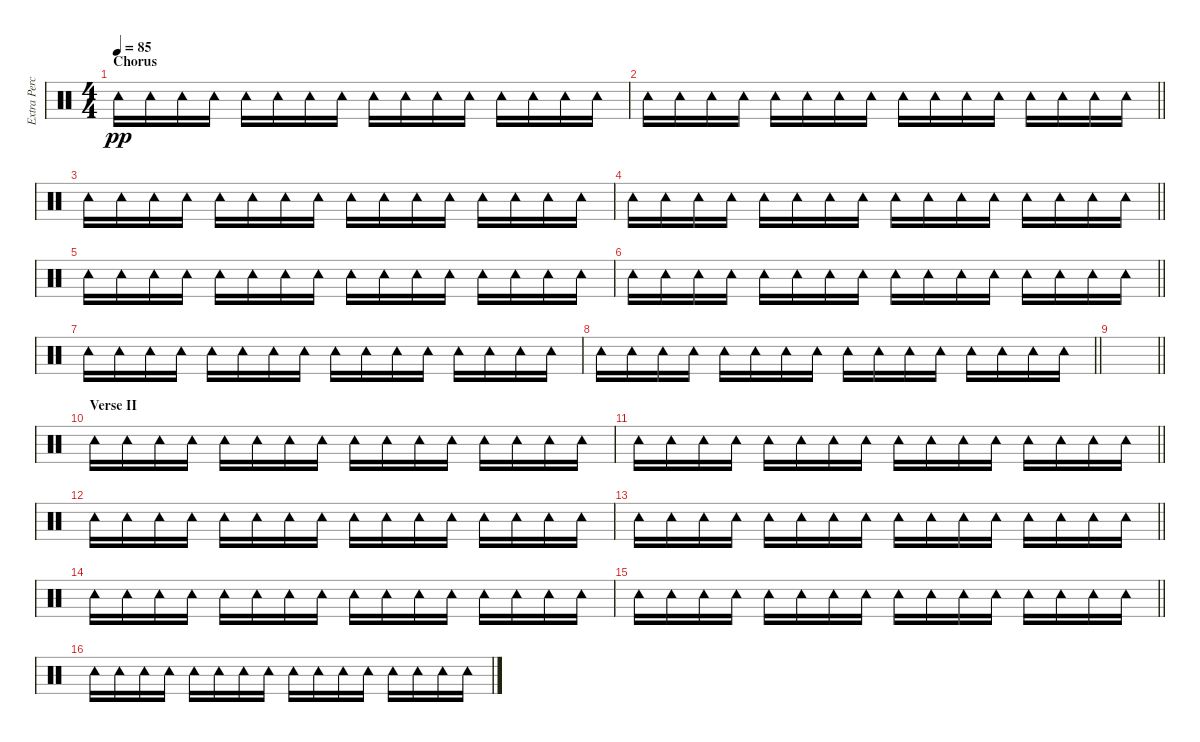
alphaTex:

\track ("Extra Percussion" "Extra Perc") {instrument percussion}
\staff {score}
\articulation defaults
\ts (4 4)
\section ("" "Chorus")
\tempo 85
\clef neutral
\ks c "Tambourine (hit)".16{dy pp} "Tambourine (hit)".16 "Tambourine (hit)".16 "Tambourine (hit)".16 "Tambourine (hit)".16 "Tambourine (hit)".16 "Tambourine (hit)".16 "Tambourine (hit)".16 "Tambourine (hit)".16 "Tambourine (hit)".16 "Tambourine (hit)".16 "Tambourine (hit)".16 "Tambourine (hit)".16 "Tambourine (hit)".16 "Tambourine (hit)".16 "Tambourine (hit)".16
|
\barLineRight lightlight "Tambourine (hit)".16 "Tambourine (hit)".16 "Tambourine (hit)".16 "Tambourine (hit)".16 "Tambourine (hit)".16 "Tambourine (hit)".16 "Tambourine (hit)".16 "Tambourine (hit)".16 "Tambourine (hit)".16 "Tambourine (hit)".16 "Tambourine (hit)".16 "Tambourine (hit)".16 "Tambourine (hit)".16 "Tambourine (hit)".16 "Tambourine (hit)".16 "Tambourine (hit)".16
|
"Tambourine (hit)".16 "Tambourine (hit)".16 "Tambourine (hit)".16 "Tambourine (hit)".16 "Tambourine (hit)".16 "Tambourine (hit)".16 "Tambourine (hit)".16 "Tambourine (hit)".16 "Tambourine (hit)".16 "Tambourine (hit)".16 "Tambourine (hit)".16 "Tambourine (hit)".16 "Tambourine (hit)".16 "Tambourine (hit)".16 "Tambourine (hit)".16 "Tambourine (hit)".16 |
\barLineRight lightlight "Tambourine (hit)".16 "Tambourine (hit)".16 "Tambourine (hit)".16 "Tambourine (hit)".16 "Tambourine (hit)".16 "Tambourine (hit)".16 "Tambourine (hit)".16 "Tambourine (hit)".16 "Tambourine (hit)".16 "Tambourine (hit)".16 "Tambourine (hit)".16 "Tambourine (hit)".16 "Tambourine (hit)".16 "Tambourine (hit)".16 "Tambourine (hit)".16 "Tambourine (hit)".16
|
"Tambourine (hit)".16 "Tambourine (hit)".16 "Tambourine (hit)".16 "Tambourine (hit)".16 "Tambourine (hit)".16 "Tambourine (hit)".16 "Tambourine (hit)".16 "Tambourine (hit)".16 "Tambourine (hit)".16 "Tambourine (hit)".16 "Tambourine (hit)".16 "Tambourine (hit)".16 "Tambourine (hit)".16 "Tambourine (hit)".16 "Tambourine (hit)".16 "Tambourine (hit)".16 |
\barLineRight lightlight "Tambourine (hit)".16 "Tambourine (hit)".16 "Tambourine (hit)".16 "Tambourine (hit)".16 "Tambourine (hit)".16 "Tambourine (hit)".16 "Tambourine (hit)".16 "Tambourine (hit)".16 "Tambourine (hit)".16 "Tambourine (hit)".16 "Tambourine (hit)".16 "Tambourine (hit)".16 "Tambourine (hit)".16 "Tambourine (hit)".16 "Tambourine (hit)".16 "Tambourine (hit)".16
|
"Tambourine (hit)".16 "Tambourine (hit)".16 "Tambourine (hit)".16 "Tambourine (hit)".16 "Tambourine (hit)".16 "Tambourine (hit)".16 "Tambourine (hit)".16 "Tambourine (hit)".16 "Tambourine (hit)".16 "Tambourine (hit)".16 "Tambourine (hit)".16 "Tambourine (hit)".16 "Tambourine (hit)".16 "Tambourine (hit)".16 "Tambourine (hit)".16 "Tambourine (hit)".16 |
\barLineRight lightlight "Tambourine (hit)".16 "Tambourine (hit)".16 "Tambourine (hit)".16 "Tambourine (hit)".16 "Tambourine (hit)".16 "Tambourine (hit)".16 "Tambourine (hit)".16 "Tambourine (hit)".16 "Tambourine (hit)".16 "Tambourine (hit)".16 "Tambourine (hit)".16 "Tambourine (hit)".16 "Tambourine (hit)".16 "Tambourine (hit)".16 "Tambourine (hit)".16 "Tambourine (hit)".16
|
\barLineRight lightlight
|
\section ("" "Verse II")
"Tambourine (hit)".16 "Tambourine (hit)".16 "Tambourine (hit)".16 "Tambourine (hit)".16 "Tambourine (hit)".16 "Tambourine (hit)".16 "Tambourine (hit)".16 "Tambourine (hit)".16 "Tambourine (hit)".16 "Tambourine (hit)".16 "Tambourine (hit)".16 "Tambourine (hit)".16 "Tambourine (hit)".16 "Tambourine (hit)".16 "Tambourine (hit)".16 "Tambourine (hit)".16 |
\barLineRight lightlight "Tambourine (hit)".16 "Tambourine (hit)".16 "Tambourine (hit)".16 "Tambourine (hit)".16 "Tambourine (hit)".16 "Tambourine (hit)".16 "Tambourine (hit)".16 "Tambourine (hit)".16 "Tambourine (hit)".16 "Tambourine (hit)".16 "Tambourine (hit)".16 "Tambourine (hit)".16 "Tambourine (hit)".16 "Tambourine (hit)".16 "Tambourine (hit)".16 "Tambourine (hit)".16
|
"Tambourine (hit)".16 "Tambourine (hit)".16 "Tambourine (hit)".16 "Tambourine (hit)".16 "Tambourine (hit)".16 "Tambourine (hit)".16 "Tambourine (hit)".16 "Tambourine (hit)".16 "Tambourine (hit)".16 "Tambourine (hit)".16 "Tambourine (hit)".16 "Tambourine (hit)".16 "Tambourine (hit)".16 "Tambourine (hit)".16 "Tambourine (hit)".16 "Tambourine (hit)".16 |
\barLineRight lightlight "Tambourine (hit)".16 "Tambourine (hit)".16 "Tambourine (hit)".16 "Tambourine (hit)".16 "Tambourine (hit)".16 "Tambourine (hit)".16 "Tambourine (hit)".16 "Tambourine (hit)".16 "Tambourine (hit)".16 "Tambourine (hit)".16 "Tambourine (hit)".16 "Tambourine (hit)".16 "Tambourine (hit)".16 "Tambourine (hit)".16 "Tambourine (hit)".16 "Tambourine (hit)".16
|
"Tambourine (hit)".16 "Tambourine (hit)".16 "Tambourine (hit)".16 "Tambourine (hit)".16 "Tambourine (hit)".16 "Tambourine (hit)".16 "Tambourine (hit)".16 "Tambourine (hit)".16 "Tambourine (hit)".16 "Tambourine (hit)".16 "Tambourine (hit)".16 "Tambourine (hit)".16 "Tambourine (hit)".16 "Tambourine (hit)".16 "Tambourine (hit)".16 "Tambourine (hit)".16 |
\barLineRight lightlight "Tambourine (hit)".16 "Tambourine (hit)".16 "Tambourine (hit)".16 "Tambourine (hit)".16 "Tambourine (hit)".16 "Tambourine (hit)".16 "Tambourine (hit)".16 "Tambourine (hit)".16 "Tambourine (hit)".16 "Tambourine (hit)".16 "Tambourine (hit)".16 "Tambourine (hit)".16 "Tambourine (hit)".16 "Tambourine (hit)".16 "Tambourine (hit)".16 "Tambourine (hit)".16
|
"Tambourine (hit)".16 "Tambourine (hit)".16 "Tambourine (hit)".16 "Tambourine (hit)".16 "Tambourine (hit)".16 "Tambourine (hit)".16 "Tambourine (hit)".16 "Tambourine (hit)".16 "Tambourine (hit)".16 "Tambourine (hit)".16 "Tambourine (hit)".16 "Tambourine (hit)".16 "Tambourine (hit)".16 "Tambourine (hit)".16 "Tambourine (hit)".16 "Tambourine (hit)".16
